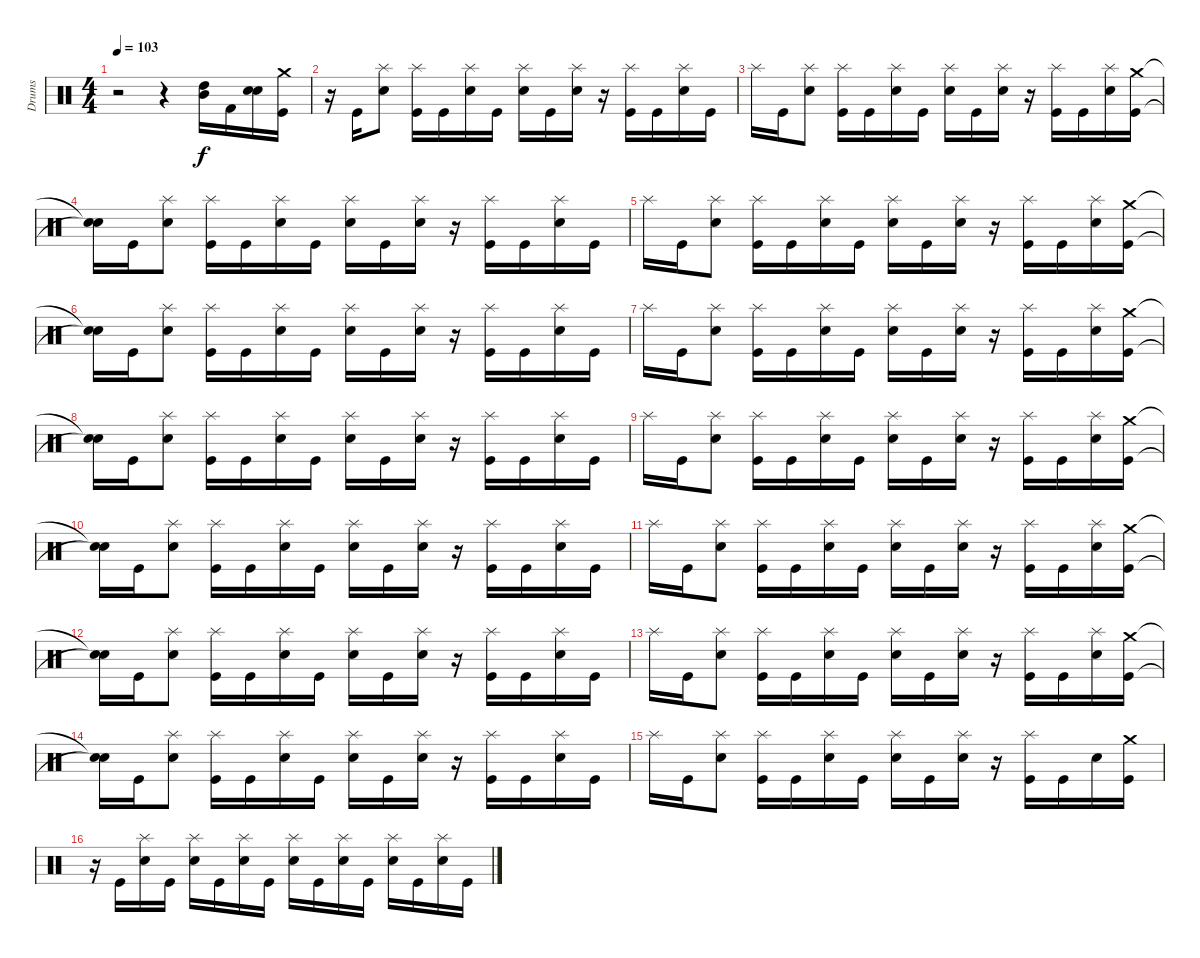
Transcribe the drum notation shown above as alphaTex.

\track ("Drums" "Drums") {instrument percussion}
\staff {score}
\articulation defaults
\ts (4 4)
\tempo 103
\clef neutral
\ks c
r.2{dy f} r.4 ("High Tom (hit)" "Mid Tom (hit)").16 "Kick (hit) 2".16 ("Snare (hit)" "Snare (hit) 2").16 ("Crash medium (hit)" "Kick (hit)").16 |
r.16 "Kick (hit)".16 ("Splash (hit)" "Electric Snare (hit)").8 ("Kick (hit)" "Splash (hit)").16 "Kick (hit)".16 ("Splash (hit)" "Electric Snare (hit)").16 "Kick (hit)".16 ("Snare (hit)" "Splash (hit)").16 "Kick (hit)".16 ("Splash (hit)" "Electric Snare (hit)").16 r.16 ("Kick (hit)" "Splash (hit)").16 "Kick (hit)".16 ("Splash (hit)" "Electric Snare (hit)").16 "Kick (hit)".16 |
"Splash (hit)".16 "Kick (hit)".16 ("Splash (hit)" "Electric Snare (hit)").8 ("Splash (hit)" "Kick (hit)").16 "Kick (hit)".16 ("Splash (hit)" "Electric Snare (hit)").16 "Kick (hit)".16 ("Snare (hit)" "Splash (hit)").16 "Kick (hit)".16 ("Splash (hit)" "Electric Snare (hit)").16 r.16 ("Splash (hit)" "Kick (hit)").16 "Kick (hit)".16 ("Splash (hit)" "Electric Snare (hit)").16 ("Kick (hit)" "Crash medium (hit)").16 |
("Snare (hit)"{t} "Snare (hit)"{t}).16 "Kick (hit)".16 ("Splash (hit)" "Electric Snare (hit)").8 ("Kick (hit)" "Splash (hit)").16 "Kick (hit)".16 ("Splash (hit)" "Electric Snare (hit)").16 "Kick (hit)".16 ("Snare (hit)" "Splash (hit)").16 "Kick (hit)".16 ("Splash (hit)" "Electric Snare (hit)").16 r.16 ("Kick (hit)" "Splash (hit)").16 "Kick (hit)".16 ("Splash (hit)" "Electric Snare (hit)").16 "Kick (hit)".16 |
"Splash (hit)".16 "Kick (hit)".16 ("Splash (hit)" "Electric Snare (hit)").8 ("Splash (hit)" "Kick (hit)").16 "Kick (hit)".16 ("Splash (hit)" "Electric Snare (hit)").16 "Kick (hit)".16 ("Snare (hit)" "Splash (hit)").16 "Kick (hit)".16 ("Splash (hit)" "Electric Snare (hit)").16 r.16 ("Splash (hit)" "Kick (hit)").16 "Kick (hit)".16 ("Splash (hit)" "Electric Snare (hit)").16 ("Kick (hit)" "Crash medium (hit)").16 |
("Snare (hit)"{t} "Snare (hit)"{t}).16 "Kick (hit)".16 ("Splash (hit)" "Electric Snare (hit)").8 ("Kick (hit)" "Splash (hit)").16 "Kick (hit)".16 ("Splash (hit)" "Electric Snare (hit)").16 "Kick (hit)".16 ("Snare (hit)" "Splash (hit)").16 "Kick (hit)".16 ("Splash (hit)" "Electric Snare (hit)").16 r.16 ("Kick (hit)" "Splash (hit)").16 "Kick (hit)".16 ("Splash (hit)" "Electric Snare (hit)").16 "Kick (hit)".16 |
"Splash (hit)".16 "Kick (hit)".16 ("Splash (hit)" "Electric Snare (hit)").8 ("Splash (hit)" "Kick (hit)").16 "Kick (hit)".16 ("Splash (hit)" "Electric Snare (hit)").16 "Kick (hit)".16 ("Snare (hit)" "Splash (hit)").16 "Kick (hit)".16 ("Splash (hit)" "Electric Snare (hit)").16 r.16 ("Splash (hit)" "Kick (hit)").16 "Kick (hit)".16 ("Splash (hit)" "Electric Snare (hit)").16 ("Kick (hit)" "Crash medium (hit)").16 |
("Snare (hit)"{t} "Snare (hit)"{t}).16 "Kick (hit)".16 ("Splash (hit)" "Electric Snare (hit)").8 ("Kick (hit)" "Splash (hit)").16 "Kick (hit)".16 ("Splash (hit)" "Electric Snare (hit)").16 "Kick (hit)".16 ("Snare (hit)" "Splash (hit)").16 "Kick (hit)".16 ("Splash (hit)" "Electric Snare (hit)").16 r.16 ("Kick (hit)" "Splash (hit)").16 "Kick (hit)".16 ("Splash (hit)" "Electric Snare (hit)").16 "Kick (hit)".16 |
"Splash (hit)".16 "Kick (hit)".16 ("Splash (hit)" "Electric Snare (hit)").8 ("Splash (hit)" "Kick (hit)").16 "Kick (hit)".16 ("Splash (hit)" "Electric Snare (hit)").16 "Kick (hit)".16 ("Snare (hit)" "Splash (hit)").16 "Kick (hit)".16 ("Splash (hit)" "Electric Snare (hit)").16 r.16 ("Splash (hit)" "Kick (hit)").16 "Kick (hit)".16 ("Splash (hit)" "Electric Snare (hit)").16 ("Kick (hit)" "Crash medium (hit)").16 |
("Snare (hit)"{t} "Snare (hit)"{t}).16 "Kick (hit)".16 ("Splash (hit)" "Electric Snare (hit)").8 ("Kick (hit)" "Splash (hit)").16 "Kick (hit)".16 ("Splash (hit)" "Electric Snare (hit)").16 "Kick (hit)".16 ("Snare (hit)" "Splash (hit)").16 "Kick (hit)".16 ("Splash (hit)" "Electric Snare (hit)").16 r.16 ("Kick (hit)" "Splash (hit)").16 "Kick (hit)".16 ("Splash (hit)" "Electric Snare (hit)").16 "Kick (hit)".16 |
"Splash (hit)".16 "Kick (hit)".16 ("Splash (hit)" "Electric Snare (hit)").8 ("Splash (hit)" "Kick (hit)").16 "Kick (hit)".16 ("Splash (hit)" "Electric Snare (hit)").16 "Kick (hit)".16 ("Snare (hit)" "Splash (hit)").16 "Kick (hit)".16 ("Splash (hit)" "Electric Snare (hit)").16 r.16 ("Splash (hit)" "Kick (hit)").16 "Kick (hit)".16 ("Splash (hit)" "Electric Snare (hit)").16 ("Kick (hit)" "Crash medium (hit)").16 |
("Snare (hit)"{t} "Snare (hit)"{t}).16 "Kick (hit)".16 ("Splash (hit)" "Electric Snare (hit)").8 ("Kick (hit)" "Splash (hit)").16 "Kick (hit)".16 ("Splash (hit)" "Electric Snare (hit)").16 "Kick (hit)".16 ("Snare (hit)" "Splash (hit)").16 "Kick (hit)".16 ("Splash (hit)" "Electric Snare (hit)").16 r.16 ("Kick (hit)" "Splash (hit)").16 "Kick (hit)".16 ("Splash (hit)" "Electric Snare (hit)").16 "Kick (hit)".16 |
"Splash (hit)".16 "Kick (hit)".16 ("Splash (hit)" "Electric Snare (hit)").8 ("Splash (hit)" "Kick (hit)").16 "Kick (hit)".16 ("Splash (hit)" "Electric Snare (hit)").16 "Kick (hit)".16 ("Snare (hit)" "Splash (hit)").16 "Kick (hit)".16 ("Splash (hit)" "Electric Snare (hit)").16 r.16 ("Splash (hit)" "Kick (hit)").16 "Kick (hit)".16 ("Splash (hit)" "Electric Snare (hit)").16 ("Kick (hit)" "Crash medium (hit)").16 |
("Snare (hit)"{t} "Snare (hit)"{t}).16 "Kick (hit)".16 ("Splash (hit)" "Electric Snare (hit)").8 ("Kick (hit)" "Splash (hit)").16 "Kick (hit)".16 ("Splash (hit)" "Electric Snare (hit)").16 "Kick (hit)".16 ("Snare (hit)" "Splash (hit)").16 "Kick (hit)".16 ("Splash (hit)" "Electric Snare (hit)").16 r.16 ("Kick (hit)" "Splash (hit)").16 "Kick (hit)".16 ("Splash (hit)" "Electric Snare (hit)").16 "Kick (hit)".16 |
"Splash (hit)".16 "Kick (hit)".16 ("Splash (hit)" "Electric Snare (hit)").8 ("Splash (hit)" "Kick (hit)").16 "Kick (hit)".16 ("Splash (hit)" "Electric Snare (hit)").16 "Kick (hit)".16 ("Snare (hit)" "Splash (hit)").16 "Kick (hit)".16 ("Splash (hit)" "Electric Snare (hit)").16 r.16 ("Splash (hit)" "Kick (hit)").16 "Kick (hit)".16 "Electric Snare (hit)".16 ("Kick (hit)" "Crash medium (hit)").16 |
r.16 "Kick (hit)".16 ("Electric Snare (hit)" "Splash (hit)").16 "Kick (hit)".16 ("Electric Snare (hit)" "Splash (hit)").16 "Kick (hit)".16 ("Electric Snare (hit)" "Splash (hit)").16 "Kick (hit)".16 ("Electric Snare (hit)" "Splash (hit)").16 "Kick (hit)".16 ("Electric Snare (hit)" "Splash (hit)").16 "Kick (hit)".16 ("Electric Snare (hit)" "Splash (hit)").16 "Kick (hit)".16 ("Electric Snare (hit)" "Splash (hit)").16 "Kick (hit)".16
